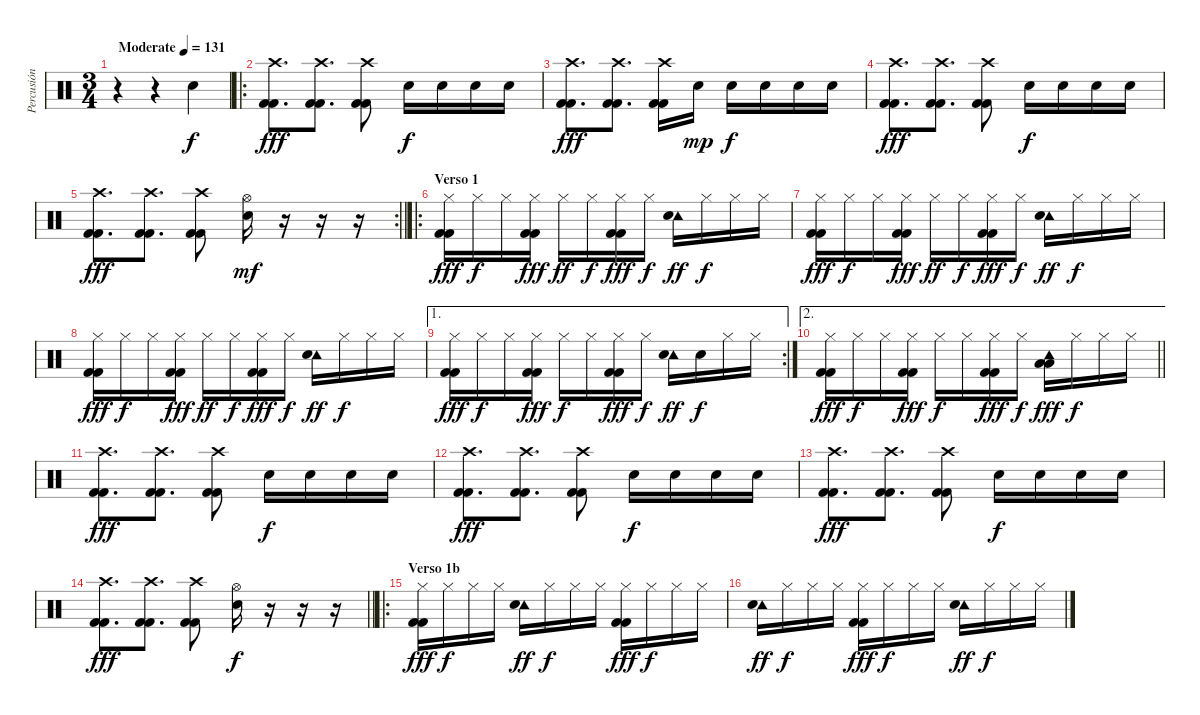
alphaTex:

\track ("Percusión" "Percusión") {instrument percussion}
\staff {score}
\articulation defaults
\ts (3 4)
\tempo (131 "Moderate")
\clef neutral
\ks c
r.4{dy f} r.4 "Electric Snare (hit)".4 |
\ro
("Crash high (hit)" "Kick (hit) 2" "Kick (hit) 2").8{d dy fff} ("Crash high (hit)" "Kick (hit) 2" "Kick (hit) 2").8{d} ("Crash high (hit)" "Kick (hit) 2" "Kick (hit) 2").8 "Electric Snare (hit)".16{dy f} "Electric Snare (hit)".16 "Electric Snare (hit)".16 "Electric Snare (hit)".16 |
("Crash high (hit)" "Kick (hit) 2" "Kick (hit) 2").8{d dy fff} ("Crash high (hit)" "Kick (hit) 2" "Kick (hit) 2").8{d} ("Crash high (hit)" "Kick (hit) 2" "Kick (hit) 2").16 "Electric Snare (hit)".16{dy mp} "Electric Snare (hit)".16{dy f} "Electric Snare (hit)".16 "Electric Snare (hit)".16 "Electric Snare (hit)".16 |
("Crash high (hit)" "Kick (hit) 2" "Kick (hit) 2").8{d dy fff} ("Crash high (hit)" "Kick (hit) 2" "Kick (hit) 2").8{d} ("Crash high (hit)" "Kick (hit) 2" "Kick (hit) 2").8 "Electric Snare (hit)".16{dy f} "Electric Snare (hit)".16 "Electric Snare (hit)".16 "Electric Snare (hit)".16 |
\rc 2
\barLineRight lightlight
("Crash high (hit)" "Kick (hit) 2" "Kick (hit) 2").8{d dy fff} ("Crash high (hit)" "Kick (hit) 2" "Kick (hit) 2").8{d} ("Crash high (hit)" "Kick (hit) 2" "Kick (hit) 2").8 ("Hi-Hat (open)" "Electric Snare (hit)").16{dy mf} r.16 r.16 r.16 |
\ro
\section ("" "Verso 1")
("Hi-Hat (closed)" "Kick (hit) 2" "Kick (hit) 2").16{dy fff} "Hi-Hat (closed)".16{dy f} "Hi-Hat (closed)".16 ("Hi-Hat (closed)" "Kick (hit) 2" "Kick (hit) 2").16{dy fff} "Hi-Hat (closed)".16{dy ff} "Hi-Hat (closed)".16{dy f} ("Hi-Hat (closed)" "Kick (hit) 2" "Kick (hit) 2").16{dy fff} "Hi-Hat (closed)".16{dy f} ("Tambourine (hit)" "Electric Snare (hit)").16{dy ff} "Hi-Hat (closed)".16{dy f} "Hi-Hat (closed)".16 "Hi-Hat (closed)".16 |
("Hi-Hat (closed)" "Kick (hit) 2" "Kick (hit) 2").16{dy fff} "Hi-Hat (closed)".16{dy f} "Hi-Hat (closed)".16 ("Hi-Hat (closed)" "Kick (hit) 2" "Kick (hit) 2").16{dy fff} "Hi-Hat (closed)".16{dy ff} "Hi-Hat (closed)".16{dy f} ("Hi-Hat (closed)" "Kick (hit) 2" "Kick (hit) 2").16{dy fff} "Hi-Hat (closed)".16{dy f} ("Tambourine (hit)" "Electric Snare (hit)").16{dy ff} "Hi-Hat (closed)".16{dy f} "Hi-Hat (closed)".16 "Hi-Hat (closed)".16 |
("Hi-Hat (closed)" "Kick (hit) 2" "Kick (hit) 2").16{dy fff} "Hi-Hat (closed)".16{dy f} "Hi-Hat (closed)".16 ("Hi-Hat (closed)" "Kick (hit) 2" "Kick (hit) 2").16{dy fff} "Hi-Hat (closed)".16{dy ff} "Hi-Hat (closed)".16{dy f} ("Hi-Hat (closed)" "Kick (hit) 2" "Kick (hit) 2").16{dy fff} "Hi-Hat (closed)".16{dy f} ("Tambourine (hit)" "Electric Snare (hit)").16{dy ff} "Hi-Hat (closed)".16{dy f} "Hi-Hat (closed)".16 "Hi-Hat (closed)".16 |
\ae 1
\rc 2
("Hi-Hat (closed)" "Kick (hit) 2" "Kick (hit) 2").16{dy fff} "Hi-Hat (closed)".16{dy f} "Hi-Hat (closed)".16 ("Hi-Hat (closed)" "Kick (hit) 2" "Kick (hit) 2").16{dy fff} "Hi-Hat (closed)".16{dy f} "Hi-Hat (closed)".16 ("Hi-Hat (closed)" "Kick (hit) 2" "Kick (hit) 2").16{dy fff} "Hi-Hat (closed)".16{dy f} ("Tambourine (hit)" "Electric Snare (hit)").16{dy ff} "Electric Snare (hit)".16{dy f} "Hi-Hat (closed)".16 "Hi-Hat (closed)".16 |
\ae 2
\barLineRight lightlight
("Hi-Hat (closed)" "Kick (hit) 2" "Kick (hit) 2").16{dy fff} "Hi-Hat (closed)".16{dy f} "Hi-Hat (closed)".16 ("Hi-Hat (closed)" "Kick (hit) 2" "Kick (hit) 2").16{dy fff} "Hi-Hat (closed)".16{dy f} "Hi-Hat (closed)".16 ("Hi-Hat (closed)" "Kick (hit) 2" "Kick (hit) 2").16{dy fff} "Hi-Hat (closed)".16{dy f} ("Tambourine (hit)" "Low Floor Tom (hit)" "Low Floor Tom (hit)").16{dy fff} "Hi-Hat (closed)".16{dy f} "Hi-Hat (closed)".16 "Hi-Hat (closed)".16 |
\section ("" "")
("Crash high (hit)" "Kick (hit) 2" "Kick (hit) 2").8{d dy fff} ("Crash high (hit)" "Kick (hit) 2" "Kick (hit) 2").8{d} ("Crash high (hit)" "Kick (hit) 2" "Kick (hit) 2").8 "Electric Snare (hit)".16{dy f} "Electric Snare (hit)".16 "Electric Snare (hit)".16 "Electric Snare (hit)".16 |
("Crash high (hit)" "Kick (hit) 2" "Kick (hit) 2").8{d dy fff} ("Crash high (hit)" "Kick (hit) 2" "Kick (hit) 2").8{d} ("Crash high (hit)" "Kick (hit) 2" "Kick (hit) 2").8 "Electric Snare (hit)".16{dy f} "Electric Snare (hit)".16 "Electric Snare (hit)".16 "Electric Snare (hit)".16 |
("Crash high (hit)" "Kick (hit) 2" "Kick (hit) 2").8{d dy fff} ("Crash high (hit)" "Kick (hit) 2" "Kick (hit) 2").8{d} ("Crash high (hit)" "Kick (hit) 2" "Kick (hit) 2").8 "Electric Snare (hit)".16{dy f} "Electric Snare (hit)".16 "Electric Snare (hit)".16 "Electric Snare (hit)".16 |
\barLineRight lightlight
("Crash high (hit)" "Kick (hit) 2" "Kick (hit) 2").8{d dy fff} ("Crash high (hit)" "Kick (hit) 2" "Kick (hit) 2").8{d} ("Crash high (hit)" "Kick (hit) 2" "Kick (hit) 2").8 ("Hi-Hat (open)" "Electric Snare (hit)").16{dy f} r.16 r.16 r.16 |
\ro
\section ("" "Verso 1b")
("Hi-Hat (closed)" "Kick (hit) 2" "Kick (hit) 2").16{dy fff} "Hi-Hat (closed)".16{dy f} "Hi-Hat (closed)".16 "Hi-Hat (closed)".16 ("Tambourine (hit)" "Electric Snare (hit)").16{dy ff} "Hi-Hat (closed)".16{dy f} "Hi-Hat (closed)".16 "Hi-Hat (closed)".16 ("Hi-Hat (closed)" "Kick (hit) 2" "Kick (hit) 2").16{dy fff} "Hi-Hat (closed)".16{dy f} "Hi-Hat (closed)".16 "Hi-Hat (closed)".16 |
("Tambourine (hit)" "Electric Snare (hit)").16{dy ff} "Hi-Hat (closed)".16{dy f} "Hi-Hat (closed)".16 "Hi-Hat (closed)".16 ("Hi-Hat (closed)" "Kick (hit) 2" "Kick (hit) 2").16{dy fff} "Hi-Hat (closed)".16{dy f} "Hi-Hat (closed)".16 "Hi-Hat (closed)".16 ("Tambourine (hit)" "Electric Snare (hit)").16{dy ff} "Hi-Hat (closed)".16{dy f} "Hi-Hat (closed)".16 "Hi-Hat (closed)".16
